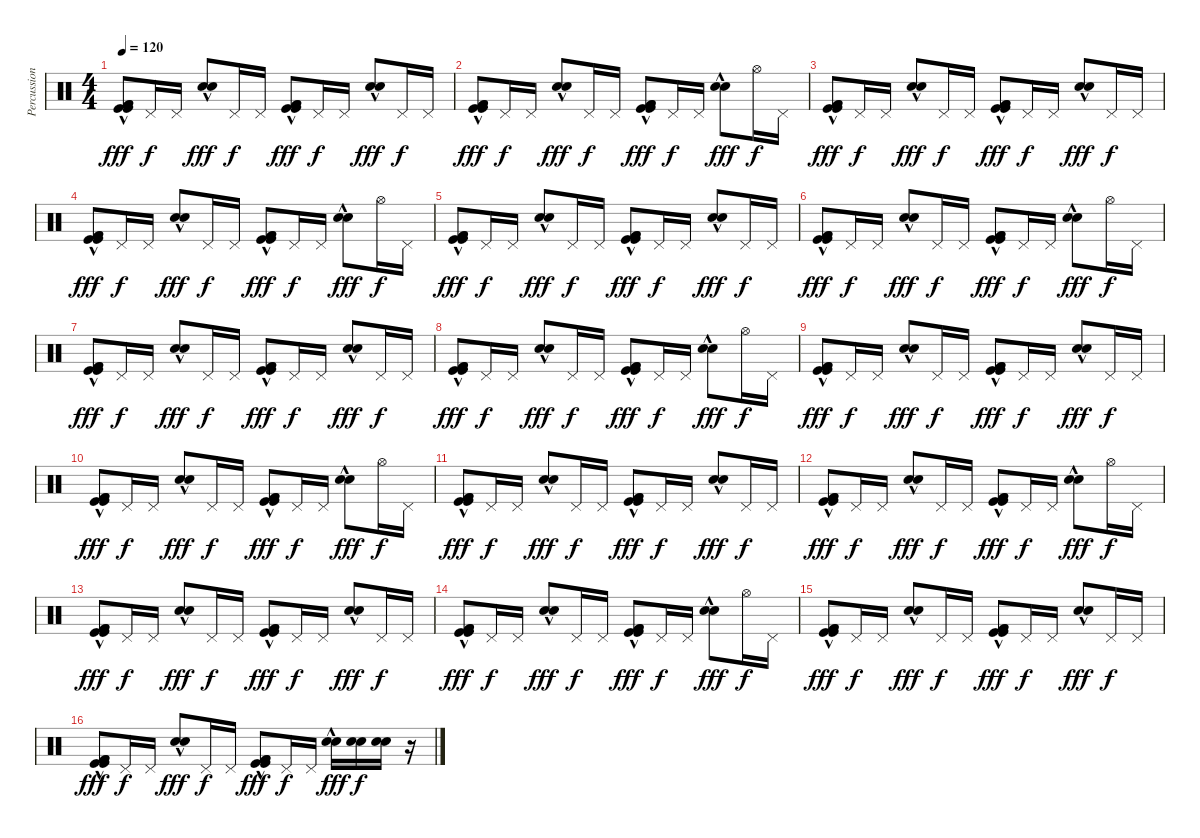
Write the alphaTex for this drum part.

\track ("Percussion" "Percussion") {instrument percussion}
\staff {score}
\articulation defaults
\ts (4 4)
\tempo 120
\clef neutral
\ks c
("Kick (hit)" "Kick (hit) 2" "Kick (hit)"{hac} "Kick (hit) 2"{hac}).8{dy fff} "Pedal Hi-Hat (hit)".16{dy f} "Pedal Hi-Hat (hit)".16 ("Electric Snare (hit)"{hac} "Snare (hit) 2"{hac}).8{dy fff} "Pedal Hi-Hat (hit)".16{dy f} "Pedal Hi-Hat (hit)".16 ("Kick (hit)" "Kick (hit) 2" "Kick (hit)"{hac} "Kick (hit) 2"{hac}).8{dy fff} "Pedal Hi-Hat (hit)".16{dy f} "Pedal Hi-Hat (hit)".16 ("Electric Snare (hit)"{hac} "Snare (hit) 2"{hac}).8{dy fff} "Pedal Hi-Hat (hit)".16{dy f} "Pedal Hi-Hat (hit)".16 |
("Kick (hit)" "Kick (hit) 2" "Kick (hit)"{hac} "Kick (hit) 2"{hac}).8{dy fff} "Pedal Hi-Hat (hit)".16{dy f} "Pedal Hi-Hat (hit)".16 ("Electric Snare (hit)"{hac} "Snare (hit) 2"{hac}).8{dy fff} "Pedal Hi-Hat (hit)".16{dy f} "Pedal Hi-Hat (hit)".16 ("Kick (hit)" "Kick (hit) 2" "Kick (hit)"{hac} "Kick (hit) 2"{hac}).8{dy fff} "Pedal Hi-Hat (hit)".16{dy f} "Pedal Hi-Hat (hit)".16 ("Electric Snare (hit)"{hac} "Snare (hit) 2"{hac}).8{dy fff} "Hi-Hat (open)".16{dy f} "Pedal Hi-Hat (hit)".16 |
("Kick (hit)" "Kick (hit) 2" "Kick (hit)"{hac} "Kick (hit) 2"{hac}).8{dy fff} "Pedal Hi-Hat (hit)".16{dy f} "Pedal Hi-Hat (hit)".16 ("Electric Snare (hit)"{hac} "Snare (hit) 2"{hac}).8{dy fff} "Pedal Hi-Hat (hit)".16{dy f} "Pedal Hi-Hat (hit)".16 ("Kick (hit)" "Kick (hit) 2" "Kick (hit)"{hac} "Kick (hit) 2"{hac}).8{dy fff} "Pedal Hi-Hat (hit)".16{dy f} "Pedal Hi-Hat (hit)".16 ("Electric Snare (hit)"{hac} "Snare (hit) 2"{hac}).8{dy fff} "Pedal Hi-Hat (hit)".16{dy f} "Pedal Hi-Hat (hit)".16 |
("Kick (hit)" "Kick (hit) 2" "Kick (hit)"{hac} "Kick (hit) 2"{hac}).8{dy fff} "Pedal Hi-Hat (hit)".16{dy f} "Pedal Hi-Hat (hit)".16 ("Electric Snare (hit)"{hac} "Snare (hit) 2"{hac}).8{dy fff} "Pedal Hi-Hat (hit)".16{dy f} "Pedal Hi-Hat (hit)".16 ("Kick (hit)" "Kick (hit) 2" "Kick (hit)"{hac} "Kick (hit) 2"{hac}).8{dy fff} "Pedal Hi-Hat (hit)".16{dy f} "Pedal Hi-Hat (hit)".16 ("Electric Snare (hit)"{hac} "Snare (hit) 2"{hac}).8{dy fff} "Hi-Hat (open)".16{dy f} "Pedal Hi-Hat (hit)".16 |
("Kick (hit)" "Kick (hit) 2" "Kick (hit)"{hac} "Kick (hit) 2"{hac}).8{dy fff} "Pedal Hi-Hat (hit)".16{dy f} "Pedal Hi-Hat (hit)".16 ("Electric Snare (hit)"{hac} "Snare (hit) 2"{hac}).8{dy fff} "Pedal Hi-Hat (hit)".16{dy f} "Pedal Hi-Hat (hit)".16 ("Kick (hit)" "Kick (hit) 2" "Kick (hit)"{hac} "Kick (hit) 2"{hac}).8{dy fff} "Pedal Hi-Hat (hit)".16{dy f} "Pedal Hi-Hat (hit)".16 ("Electric Snare (hit)"{hac} "Snare (hit) 2"{hac}).8{dy fff} "Pedal Hi-Hat (hit)".16{dy f} "Pedal Hi-Hat (hit)".16 |
("Kick (hit)" "Kick (hit) 2" "Kick (hit)"{hac} "Kick (hit) 2"{hac}).8{dy fff} "Pedal Hi-Hat (hit)".16{dy f} "Pedal Hi-Hat (hit)".16 ("Electric Snare (hit)"{hac} "Snare (hit) 2"{hac}).8{dy fff} "Pedal Hi-Hat (hit)".16{dy f} "Pedal Hi-Hat (hit)".16 ("Kick (hit)" "Kick (hit) 2" "Kick (hit)"{hac} "Kick (hit) 2"{hac}).8{dy fff} "Pedal Hi-Hat (hit)".16{dy f} "Pedal Hi-Hat (hit)".16 ("Electric Snare (hit)"{hac} "Snare (hit) 2"{hac}).8{dy fff} "Hi-Hat (open)".16{dy f} "Pedal Hi-Hat (hit)".16 |
("Kick (hit)" "Kick (hit) 2" "Kick (hit)"{hac} "Kick (hit) 2"{hac}).8{dy fff} "Pedal Hi-Hat (hit)".16{dy f} "Pedal Hi-Hat (hit)".16 ("Electric Snare (hit)"{hac} "Snare (hit) 2"{hac}).8{dy fff} "Pedal Hi-Hat (hit)".16{dy f} "Pedal Hi-Hat (hit)".16 ("Kick (hit)" "Kick (hit) 2" "Kick (hit)"{hac} "Kick (hit) 2"{hac}).8{dy fff} "Pedal Hi-Hat (hit)".16{dy f} "Pedal Hi-Hat (hit)".16 ("Electric Snare (hit)"{hac} "Snare (hit) 2"{hac}).8{dy fff} "Pedal Hi-Hat (hit)".16{dy f} "Pedal Hi-Hat (hit)".16 |
("Kick (hit)" "Kick (hit) 2" "Kick (hit)"{hac} "Kick (hit) 2"{hac}).8{dy fff} "Pedal Hi-Hat (hit)".16{dy f} "Pedal Hi-Hat (hit)".16 ("Electric Snare (hit)"{hac} "Snare (hit) 2"{hac}).8{dy fff} "Pedal Hi-Hat (hit)".16{dy f} "Pedal Hi-Hat (hit)".16 ("Kick (hit)" "Kick (hit) 2" "Kick (hit)"{hac} "Kick (hit) 2"{hac}).8{dy fff} "Pedal Hi-Hat (hit)".16{dy f} "Pedal Hi-Hat (hit)".16 ("Electric Snare (hit)"{hac} "Snare (hit) 2"{hac}).8{dy fff} "Hi-Hat (open)".16{dy f} "Pedal Hi-Hat (hit)".16 |
("Kick (hit)" "Kick (hit) 2" "Kick (hit)"{hac} "Kick (hit) 2"{hac}).8{dy fff} "Pedal Hi-Hat (hit)".16{dy f} "Pedal Hi-Hat (hit)".16 ("Electric Snare (hit)"{hac} "Snare (hit) 2"{hac}).8{dy fff} "Pedal Hi-Hat (hit)".16{dy f} "Pedal Hi-Hat (hit)".16 ("Kick (hit)" "Kick (hit) 2" "Kick (hit)"{hac} "Kick (hit) 2"{hac}).8{dy fff} "Pedal Hi-Hat (hit)".16{dy f} "Pedal Hi-Hat (hit)".16 ("Electric Snare (hit)"{hac} "Snare (hit) 2"{hac}).8{dy fff} "Pedal Hi-Hat (hit)".16{dy f} "Pedal Hi-Hat (hit)".16 |
("Kick (hit)" "Kick (hit) 2" "Kick (hit)"{hac} "Kick (hit) 2"{hac}).8{dy fff} "Pedal Hi-Hat (hit)".16{dy f} "Pedal Hi-Hat (hit)".16 ("Electric Snare (hit)"{hac} "Snare (hit) 2"{hac}).8{dy fff} "Pedal Hi-Hat (hit)".16{dy f} "Pedal Hi-Hat (hit)".16 ("Kick (hit)" "Kick (hit) 2" "Kick (hit)"{hac} "Kick (hit) 2"{hac}).8{dy fff} "Pedal Hi-Hat (hit)".16{dy f} "Pedal Hi-Hat (hit)".16 ("Electric Snare (hit)"{hac} "Snare (hit) 2"{hac}).8{dy fff} "Hi-Hat (open)".16{dy f} "Pedal Hi-Hat (hit)".16 |
("Kick (hit)" "Kick (hit) 2" "Kick (hit)"{hac} "Kick (hit) 2"{hac}).8{dy fff} "Pedal Hi-Hat (hit)".16{dy f} "Pedal Hi-Hat (hit)".16 ("Electric Snare (hit)"{hac} "Snare (hit) 2"{hac}).8{dy fff} "Pedal Hi-Hat (hit)".16{dy f} "Pedal Hi-Hat (hit)".16 ("Kick (hit)" "Kick (hit) 2" "Kick (hit)"{hac} "Kick (hit) 2"{hac}).8{dy fff} "Pedal Hi-Hat (hit)".16{dy f} "Pedal Hi-Hat (hit)".16 ("Electric Snare (hit)"{hac} "Snare (hit) 2"{hac}).8{dy fff} "Pedal Hi-Hat (hit)".16{dy f} "Pedal Hi-Hat (hit)".16 |
("Kick (hit)" "Kick (hit) 2" "Kick (hit)"{hac} "Kick (hit) 2"{hac}).8{dy fff} "Pedal Hi-Hat (hit)".16{dy f} "Pedal Hi-Hat (hit)".16 ("Electric Snare (hit)"{hac} "Snare (hit) 2"{hac}).8{dy fff} "Pedal Hi-Hat (hit)".16{dy f} "Pedal Hi-Hat (hit)".16 ("Kick (hit)" "Kick (hit) 2" "Kick (hit)"{hac} "Kick (hit) 2"{hac}).8{dy fff} "Pedal Hi-Hat (hit)".16{dy f} "Pedal Hi-Hat (hit)".16 ("Electric Snare (hit)"{hac} "Snare (hit) 2"{hac}).8{dy fff} "Hi-Hat (open)".16{dy f} "Pedal Hi-Hat (hit)".16 |
("Kick (hit)" "Kick (hit) 2" "Kick (hit)"{hac} "Kick (hit) 2"{hac}).8{dy fff} "Pedal Hi-Hat (hit)".16{dy f} "Pedal Hi-Hat (hit)".16 ("Electric Snare (hit)"{hac} "Snare (hit) 2"{hac}).8{dy fff} "Pedal Hi-Hat (hit)".16{dy f} "Pedal Hi-Hat (hit)".16 ("Kick (hit)" "Kick (hit) 2" "Kick (hit)"{hac} "Kick (hit) 2"{hac}).8{dy fff} "Pedal Hi-Hat (hit)".16{dy f} "Pedal Hi-Hat (hit)".16 ("Electric Snare (hit)"{hac} "Snare (hit) 2"{hac}).8{dy fff} "Pedal Hi-Hat (hit)".16{dy f} "Pedal Hi-Hat (hit)".16 |
("Kick (hit)" "Kick (hit) 2" "Kick (hit)"{hac} "Kick (hit) 2"{hac}).8{dy fff} "Pedal Hi-Hat (hit)".16{dy f} "Pedal Hi-Hat (hit)".16 ("Electric Snare (hit)"{hac} "Snare (hit) 2"{hac}).8{dy fff} "Pedal Hi-Hat (hit)".16{dy f} "Pedal Hi-Hat (hit)".16 ("Kick (hit)" "Kick (hit) 2" "Kick (hit)"{hac} "Kick (hit) 2"{hac}).8{dy fff} "Pedal Hi-Hat (hit)".16{dy f} "Pedal Hi-Hat (hit)".16 ("Electric Snare (hit)"{hac} "Snare (hit) 2"{hac}).8{dy fff} "Hi-Hat (open)".16{dy f} "Pedal Hi-Hat (hit)".16 |
("Kick (hit)" "Kick (hit) 2" "Kick (hit)"{hac} "Kick (hit) 2"{hac}).8{dy fff} "Pedal Hi-Hat (hit)".16{dy f} "Pedal Hi-Hat (hit)".16 ("Electric Snare (hit)"{hac} "Snare (hit) 2"{hac}).8{dy fff} "Pedal Hi-Hat (hit)".16{dy f} "Pedal Hi-Hat (hit)".16 ("Kick (hit)" "Kick (hit) 2" "Kick (hit)"{hac} "Kick (hit) 2"{hac}).8{dy fff} "Pedal Hi-Hat (hit)".16{dy f} "Pedal Hi-Hat (hit)".16 ("Electric Snare (hit)"{hac} "Snare (hit) 2"{hac}).8{dy fff} "Pedal Hi-Hat (hit)".16{dy f} "Pedal Hi-Hat (hit)".16 |
("Kick (hit)" "Kick (hit) 2" "Kick (hit)"{hac} "Kick (hit) 2"{hac}).8{dy fff} "Pedal Hi-Hat (hit)".16{dy f} "Pedal Hi-Hat (hit)".16 ("Electric Snare (hit)"{hac} "Snare (hit) 2"{hac}).8{dy fff} "Pedal Hi-Hat (hit)".16{dy f} "Pedal Hi-Hat (hit)".16 ("Kick (hit)" "Kick (hit) 2" "Kick (hit)"{hac} "Kick (hit) 2"{hac}).8{dy fff} "Pedal Hi-Hat (hit)".16{dy f} "Pedal Hi-Hat (hit)".16 ("Electric Snare (hit)"{hac} "Snare (hit) 2"{hac}).16{dy fff} ("Electric Snare (hit)" "Snare (hit) 2").16{dy f} ("Electric Snare (hit)" "Snare (hit) 2").16 r.16
